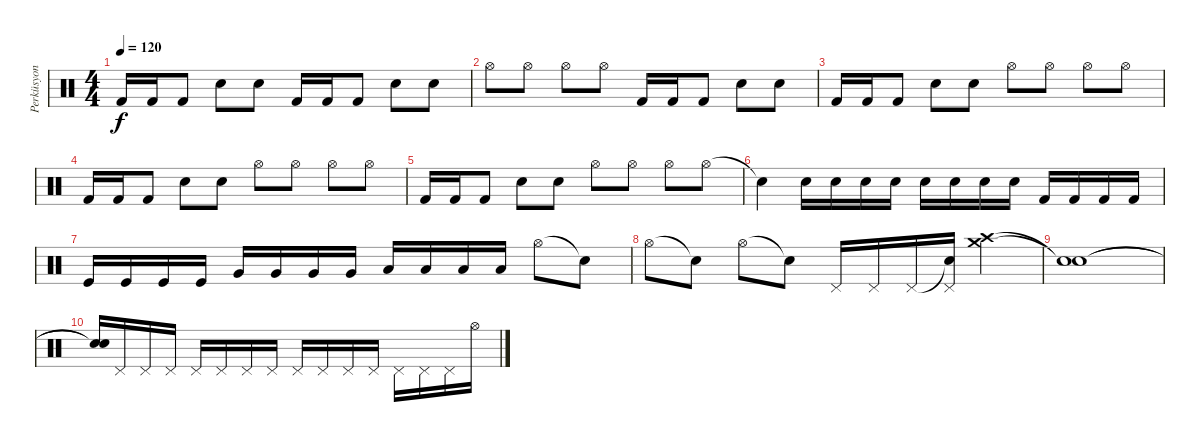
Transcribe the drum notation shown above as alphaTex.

\track ("Perküsyon" "Perküsyon") {instrument percussion}
\staff {score}
\articulation defaults
\ts (4 4)
\tempo 120
\clef neutral
\ks c "Kick (hit) 2".16{dy f} "Kick (hit) 2".16 "Kick (hit) 2".8 "Snare (hit) 2".8 "Electric Snare (hit)".8 "Kick (hit) 2".16 "Kick (hit) 2".16 "Kick (hit) 2".8 "Snare (hit) 2".8 "Electric Snare (hit)".8
|
"Hi-Hat (open)".8 "Hi-Hat (open)".8 "Hi-Hat (open)".8 "Hi-Hat (open)".8 "Kick (hit) 2".16 "Kick (hit) 2".16 "Kick (hit) 2".8 "Snare (hit) 2".8 "Electric Snare (hit)".8 |
"Kick (hit) 2".16 "Kick (hit) 2".16 "Kick (hit) 2".8 "Snare (hit) 2".8 "Electric Snare (hit)".8 "Hi-Hat (open)".8 "Hi-Hat (open)".8 "Hi-Hat (open)".8 "Hi-Hat (open)".8 |
"Kick (hit) 2".16 "Kick (hit) 2".16 "Kick (hit) 2".8 "Snare (hit) 2".8 "Electric Snare (hit)".8 "Hi-Hat (open)".8 "Hi-Hat (open)".8 "Hi-Hat (open)".8 "Hi-Hat (open)".8 |
"Kick (hit) 2".16 "Kick (hit) 2".16 "Kick (hit) 2".8 "Snare (hit) 2".8 "Electric Snare (hit)".8 "Hi-Hat (open)".8 "Hi-Hat (open)".8 "Hi-Hat (open)".8 "Hi-Hat (open)".8 |
"Snare (hit)"{t}.4 "Electric Snare (hit)".16 "Electric Snare (hit)".16 "Electric Snare (hit)".16 "Electric Snare (hit)".16 "Snare (hit) 2".16 "Snare (hit) 2".16 "Snare (hit) 2".16 "Snare (hit) 2".16 "Kick (hit) 2".16 "Kick (hit) 2".16 "Kick (hit) 2".16 "Kick (hit) 2".16 |
"Kick (hit)".16 "Kick (hit)".16 "Kick (hit)".16 "Kick (hit)".16 "Very Low Tom (hit)".16 "Very Low Tom (hit)".16 "Very Low Tom (hit)".16 "Very Low Tom (hit)".16 "Low Floor Tom (hit)".16 "Low Floor Tom (hit)".16 "Low Floor Tom (hit)".16 "Low Floor Tom (hit)".16 "Hi-Hat (open)".8 "Snare (hit)"{t}.8 |
"Hi-Hat (open)".8 "Snare (hit)"{t}.8 "Hi-Hat (open)".8 "Snare (hit)"{t}.8 "Pedal Hi-Hat (hit)".16 "Pedal Hi-Hat (hit)".16 "Pedal Hi-Hat (hit)".16 ("Snare (hit)"{t} "Pedal Hi-Hat (hit)").16 ("Crash medium (hit)" "Crash high (hit)").4 |
("Snare (hit)"{t} "Snare (hit)"{t}).1 |
("Snare (hit)"{t} "Snare (hit)"{t}).16 "Pedal Hi-Hat (hit)".16 "Pedal Hi-Hat (hit)".16 "Pedal Hi-Hat (hit)".16 "Pedal Hi-Hat (hit)".16 "Pedal Hi-Hat (hit)".16 "Pedal Hi-Hat (hit)".16 "Pedal Hi-Hat (hit)".16 "Pedal Hi-Hat (hit)".16 "Pedal Hi-Hat (hit)".16 "Pedal Hi-Hat (hit)".16 "Pedal Hi-Hat (hit)".16 "Pedal Hi-Hat (hit)".16 "Pedal Hi-Hat (hit)".16 "Pedal Hi-Hat (hit)".16 "Hi-Hat (open)".16
